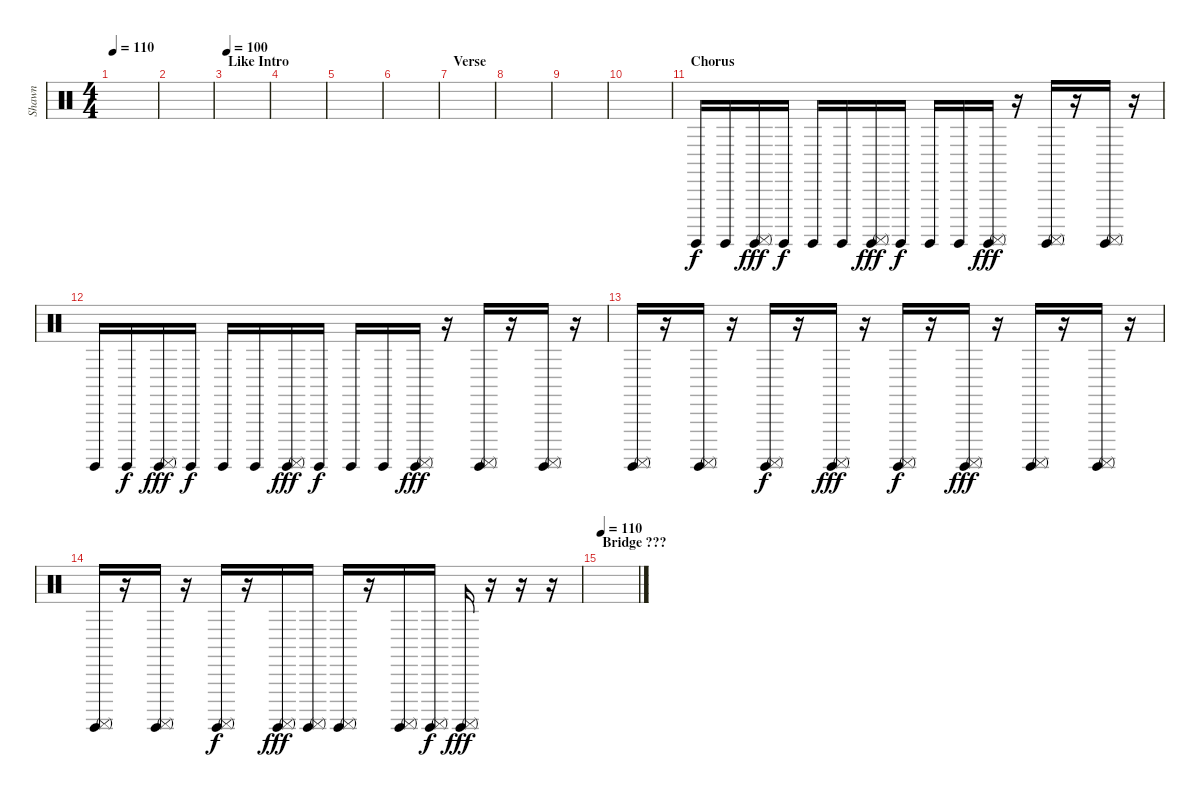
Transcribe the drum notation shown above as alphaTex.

\track ("Shawn" "Shawn") {instrument percussion}
\staff {score}
\articulation defaults
\ts (4 4)
\tempo 110
\clef neutral
\ks c
|
|
\section ("" "Like Intro")
\tempo 100
|
|
|
|
\section ("" "Verse")
|
|
|
|
\section ("" "Chorus")
"Surdo (hit)".16 "Surdo (hit)".16{dy f} ("Surdo (hit)" "Surdo (mute)").16{dy fff} "Surdo (hit)".16{dy f} "Surdo (hit)".16 "Surdo (hit)".16 ("Surdo (hit)" "Surdo (mute)").16{dy fff} "Surdo (hit)".16{dy f} "Surdo (hit)".16 "Surdo (hit)".16 ("Surdo (hit)" "Surdo (mute)").16{dy fff} r.16 ("Surdo (hit)" "Surdo (mute)").16 r.16 ("Surdo (hit)" "Surdo (mute)").16 r.16 |
"Surdo (hit)".16 "Surdo (hit)".16{dy f} ("Surdo (hit)" "Surdo (mute)").16{dy fff} "Surdo (hit)".16{dy f} "Surdo (hit)".16 "Surdo (hit)".16 ("Surdo (hit)" "Surdo (mute)").16{dy fff} "Surdo (hit)".16{dy f} "Surdo (hit)".16 "Surdo (hit)".16 ("Surdo (hit)" "Surdo (mute)").16{dy fff} r.16 ("Surdo (hit)" "Surdo (mute)").16 r.16 ("Surdo (hit)" "Surdo (mute)").16 r.16 |
("Surdo (hit)" "Surdo (mute)").16 r.16 ("Surdo (hit)" "Surdo (mute)").16 r.16 ("Surdo (hit)" "Surdo (mute)").16{dy f} r.16 ("Surdo (hit)" "Surdo (mute)").16{dy fff} r.16 ("Surdo (hit)" "Surdo (mute)").16{dy f} r.16 ("Surdo (hit)" "Surdo (mute)").16{dy fff} r.16 ("Surdo (hit)" "Surdo (mute)").16 r.16 ("Surdo (hit)" "Surdo (mute)").16 r.16 |
("Surdo (hit)" "Surdo (mute)").16 r.16 ("Surdo (hit)" "Surdo (mute)").16 r.16 ("Surdo (hit)" "Surdo (mute)").16{dy f} r.16 ("Surdo (hit)" "Surdo (mute)").16{dy fff} ("Surdo (hit)" "Surdo (mute)").16 ("Surdo (hit)" "Surdo (mute)").16 r.16 ("Surdo (hit)" "Surdo (mute)").16 ("Surdo (hit)" "Surdo (mute)").16{dy f} ("Surdo (hit)" "Surdo (mute)").16{dy fff} r.16 r.16 r.16 |
\section ("" "Bridge ???")
\tempo 110
